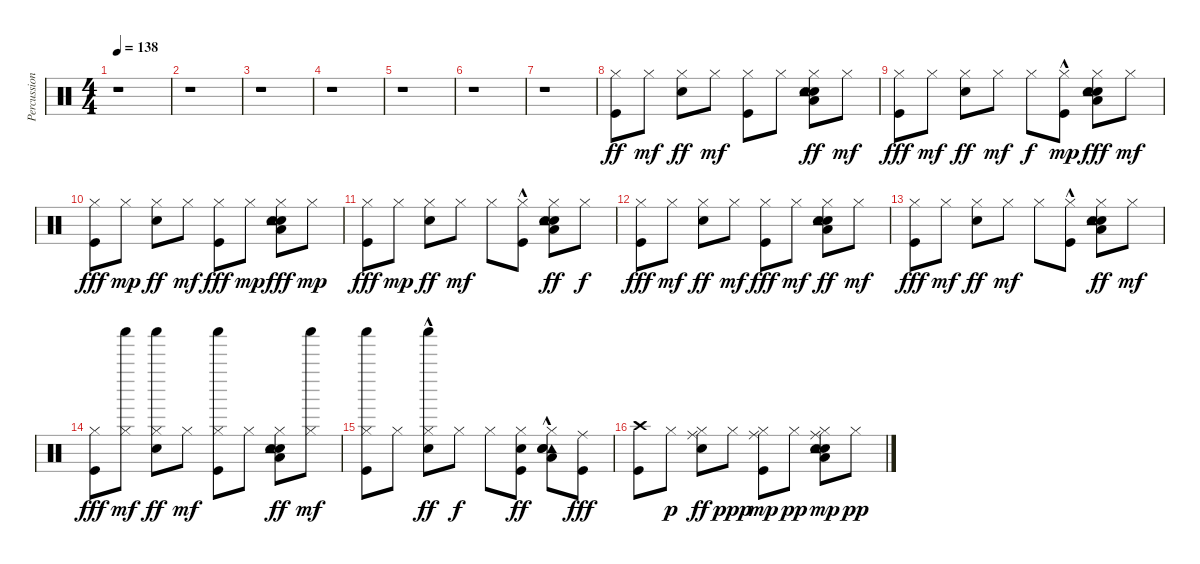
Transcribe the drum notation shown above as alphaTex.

\track ("Percussion" "Percussion") {instrument percussion}
\staff {score}
\articulation defaults
\ts (4 4)
\tempo 138
\clef neutral
\ks c
r.1{dy ff} |
r.1 |
r.1 |
r.1 |
r.1 |
r.1 |
r.1 |
("Kick (hit)" "Hi-Hat (closed)").8 "Hi-Hat (closed)".8{dy mf} ("Hi-Hat (closed)" "Electric Snare (hit)").8{dy ff} "Hi-Hat (closed)".8{dy mf} ("Kick (hit)" "Hi-Hat (closed)").8 "Hi-Hat (closed)".8 ("Snare (hit) 2" "Tambourine (hit)" "Low Floor Tom (hit)" "Hand Clap (hit)" "Hi-Hat (closed)").8{dy ff} "Hi-Hat (closed)".8{dy mf} |
("Hi-Hat (closed)" "Kick (hit)").8{dy fff} "Hi-Hat (closed)".8{dy mf} ("Hi-Hat (closed)" "Electric Snare (hit)").8{dy ff} "Hi-Hat (closed)".8{dy mf} "Hi-Hat (closed)".8{dy f} ("Kick (hit)"{hac} "Hi-Hat (closed)").8{dy mp} ("Hi-Hat (closed)" "Hand Clap (hit)" "Low Floor Tom (hit)" "Snare (hit) 2" "Tambourine (hit)").8{dy fff} "Hi-Hat (closed)".8{dy mf} |
("Hi-Hat (closed)" "Kick (hit)").8{dy fff} "Hi-Hat (closed)".8{dy mp} ("Hi-Hat (closed)" "Electric Snare (hit)").8{dy ff} "Hi-Hat (closed)".8{dy mf} ("Kick (hit)" "Hi-Hat (closed)").8{dy fff} "Hi-Hat (closed)".8{dy mp} ("Hi-Hat (closed)" "Hand Clap (hit)" "Snare (hit) 2" "Low Floor Tom (hit)" "Tambourine (hit)").8{dy fff} "Hi-Hat (closed)".8{dy mp} |
("Hi-Hat (closed)" "Kick (hit)").8{dy fff} "Hi-Hat (closed)".8{dy mp} ("Hi-Hat (closed)" "Electric Snare (hit)").8{dy ff} "Hi-Hat (closed)".8{dy mf} "Hi-Hat (closed)".8 ("Kick (hit)"{hac} "Hi-Hat (closed)").8 ("Hi-Hat (closed)" "Snare (hit) 2" "Hand Clap (hit)" "Tambourine (hit)" "Low Floor Tom (hit)").8{dy ff} "Hi-Hat (closed)".8{dy f} |
("Hi-Hat (closed)" "Kick (hit)").8{dy fff} "Hi-Hat (closed)".8{dy mf} ("Electric Snare (hit)" "Hi-Hat (closed)").8{dy ff} "Hi-Hat (closed)".8{dy mf} ("Hi-Hat (closed)" "Kick (hit)").8{dy fff} "Hi-Hat (closed)".8{dy mf} ("Snare (hit) 2" "Hand Clap (hit)" "Low Floor Tom (hit)" "Tambourine (hit)" "Hi-Hat (closed)").8{dy ff} "Hi-Hat (closed)".8{dy mf} |
("Kick (hit)" "Hi-Hat (closed)").8{dy fff} "Hi-Hat (closed)".8{dy mf} ("Hi-Hat (closed)" "Electric Snare (hit)").8{dy ff} "Hi-Hat (closed)".8{dy mf} "Hi-Hat (closed)".8 ("Kick (hit)"{hac} "Hi-Hat (closed)").8 ("Snare (hit) 2" "Hand Clap (hit)" "Tambourine (hit)" "Low Floor Tom (hit)" "Hi-Hat (closed)").8{dy ff} "Hi-Hat (closed)".8{dy mf} |
("Hi-Hat (closed)" "Kick (hit)").8{dy fff} ("Hi-Hat (closed)" "Shaker (hit)").8{dy mf} ("Electric Snare (hit)" "Hi-Hat (closed)" "Shaker (hit)").8{dy ff} "Hi-Hat (closed)".8{dy mf} ("Hi-Hat (closed)" "Kick (hit)" "Shaker (hit)").8 "Hi-Hat (closed)".8 ("Hand Clap (hit)" "Snare (hit) 2" "Low Floor Tom (hit)" "Tambourine (hit)" "Hi-Hat (closed)").8{dy ff} ("Hi-Hat (closed)" "Shaker (hit)").8{dy mf} |
("Kick (hit)" "Hi-Hat (closed)" "Shaker (hit)").8 "Hi-Hat (closed)".8 ("Electric Snare (hit)"{hac} "Hi-Hat (closed)" "Shaker (hit)").8{dy ff} "Hi-Hat (closed)".8{dy f} "Hi-Hat (closed)".8 ("Hi-Hat (closed)" "Kick (hit)" "Electric Snare (hit)").8{dy ff} ("Hi-Hat (closed)"{hac} "Tambourine (hit)" "Hand Clap (hit)" "Low Floor Tom (hit)" "Snare (hit) 2").8 ("Ride (middle)" "Kick (hit)").8{dy fff} |
("Crash high (hit)" "Kick (hit)").8 "Hi-Hat (closed)".8{dy p} ("Hi-Hat (closed)" "Ride (middle)" "Electric Snare (hit)").8{dy ff} "Hi-Hat (closed)".8{dy ppp} ("Kick (hit)" "Hi-Hat (closed)" "Ride (middle)").8{dy mp} "Hi-Hat (closed)".8{dy pp} ("Snare (hit) 2" "Tambourine (hit)" "Low Floor Tom (hit)" "Hand Clap (hit)" "Hi-Hat (closed)" "Ride (middle)").8{dy mp} "Hi-Hat (closed)".8{dy pp}
